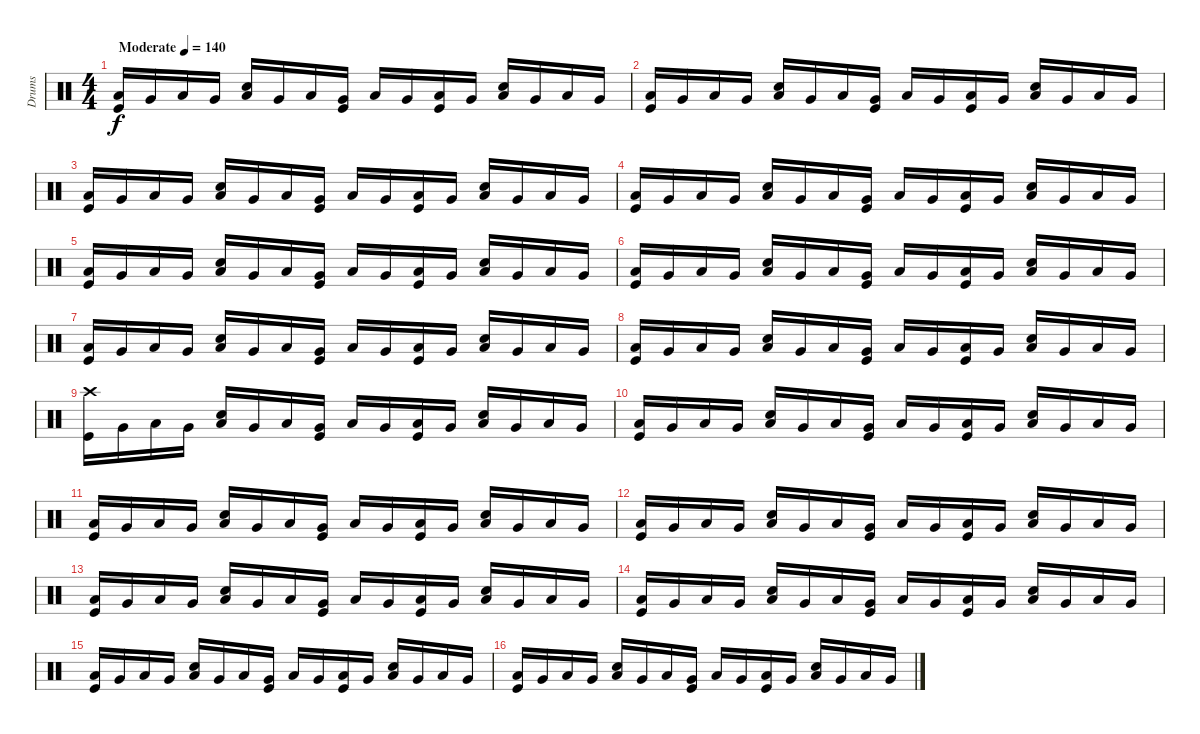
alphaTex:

\track ("Drums" "Drums") {instrument percussion}
\staff {score}
\articulation defaults
\ts (4 4)
\tempo (140 "Moderate")
\clef neutral
\ks c
("Low Floor Tom (hit)" "Kick (hit)").16{dy f} "Very Low Tom (hit)".16 "Low Floor Tom (hit)".16 "Very Low Tom (hit)".16 ("Snare (hit) 2" "Low Floor Tom (hit)").16 "Very Low Tom (hit)".16 "Low Floor Tom (hit)".16 ("Very Low Tom (hit)" "Kick (hit)").16 "Low Floor Tom (hit)".16 "Very Low Tom (hit)".16 ("Low Floor Tom (hit)" "Kick (hit)").16 "Very Low Tom (hit)".16 ("Snare (hit) 2" "Low Floor Tom (hit)").16 "Very Low Tom (hit)".16 "Low Floor Tom (hit)".16 "Very Low Tom (hit)".16 |
("Low Floor Tom (hit)" "Kick (hit)").16 "Very Low Tom (hit)".16 "Low Floor Tom (hit)".16 "Very Low Tom (hit)".16 ("Snare (hit) 2" "Low Floor Tom (hit)").16 "Very Low Tom (hit)".16 "Low Floor Tom (hit)".16 ("Very Low Tom (hit)" "Kick (hit)").16 "Low Floor Tom (hit)".16 "Very Low Tom (hit)".16 ("Low Floor Tom (hit)" "Kick (hit)").16 "Very Low Tom (hit)".16 ("Snare (hit) 2" "Low Floor Tom (hit)").16 "Very Low Tom (hit)".16 "Low Floor Tom (hit)".16 "Very Low Tom (hit)".16 |
("Low Floor Tom (hit)" "Kick (hit)").16 "Very Low Tom (hit)".16 "Low Floor Tom (hit)".16 "Very Low Tom (hit)".16 ("Snare (hit) 2" "Low Floor Tom (hit)").16 "Very Low Tom (hit)".16 "Low Floor Tom (hit)".16 ("Very Low Tom (hit)" "Kick (hit)").16 "Low Floor Tom (hit)".16 "Very Low Tom (hit)".16 ("Low Floor Tom (hit)" "Kick (hit)").16 "Very Low Tom (hit)".16 ("Snare (hit) 2" "Low Floor Tom (hit)").16 "Very Low Tom (hit)".16 "Low Floor Tom (hit)".16 "Very Low Tom (hit)".16 |
("Low Floor Tom (hit)" "Kick (hit)").16 "Very Low Tom (hit)".16 "Low Floor Tom (hit)".16 "Very Low Tom (hit)".16 ("Snare (hit) 2" "Low Floor Tom (hit)").16 "Very Low Tom (hit)".16 "Low Floor Tom (hit)".16 ("Very Low Tom (hit)" "Kick (hit)").16 "Low Floor Tom (hit)".16 "Very Low Tom (hit)".16 ("Low Floor Tom (hit)" "Kick (hit)").16 "Very Low Tom (hit)".16 ("Snare (hit) 2" "Low Floor Tom (hit)").16 "Very Low Tom (hit)".16 "Low Floor Tom (hit)".16 "Very Low Tom (hit)".16 |
("Low Floor Tom (hit)" "Kick (hit)").16 "Very Low Tom (hit)".16 "Low Floor Tom (hit)".16 "Very Low Tom (hit)".16 ("Snare (hit) 2" "Low Floor Tom (hit)").16 "Very Low Tom (hit)".16 "Low Floor Tom (hit)".16 ("Very Low Tom (hit)" "Kick (hit)").16 "Low Floor Tom (hit)".16 "Very Low Tom (hit)".16 ("Low Floor Tom (hit)" "Kick (hit)").16 "Very Low Tom (hit)".16 ("Snare (hit) 2" "Low Floor Tom (hit)").16 "Very Low Tom (hit)".16 "Low Floor Tom (hit)".16 "Very Low Tom (hit)".16 |
("Low Floor Tom (hit)" "Kick (hit)").16 "Very Low Tom (hit)".16 "Low Floor Tom (hit)".16 "Very Low Tom (hit)".16 ("Snare (hit) 2" "Low Floor Tom (hit)").16 "Very Low Tom (hit)".16 "Low Floor Tom (hit)".16 ("Very Low Tom (hit)" "Kick (hit)").16 "Low Floor Tom (hit)".16 "Very Low Tom (hit)".16 ("Low Floor Tom (hit)" "Kick (hit)").16 "Very Low Tom (hit)".16 ("Snare (hit) 2" "Low Floor Tom (hit)").16 "Very Low Tom (hit)".16 "Low Floor Tom (hit)".16 "Very Low Tom (hit)".16 |
("Low Floor Tom (hit)" "Kick (hit)").16 "Very Low Tom (hit)".16 "Low Floor Tom (hit)".16 "Very Low Tom (hit)".16 ("Snare (hit) 2" "Low Floor Tom (hit)").16 "Very Low Tom (hit)".16 "Low Floor Tom (hit)".16 ("Very Low Tom (hit)" "Kick (hit)").16 "Low Floor Tom (hit)".16 "Very Low Tom (hit)".16 ("Low Floor Tom (hit)" "Kick (hit)").16 "Very Low Tom (hit)".16 ("Snare (hit) 2" "Low Floor Tom (hit)").16 "Very Low Tom (hit)".16 "Low Floor Tom (hit)".16 "Very Low Tom (hit)".16 |
("Low Floor Tom (hit)" "Kick (hit)").16 "Very Low Tom (hit)".16 "Low Floor Tom (hit)".16 "Very Low Tom (hit)".16 ("Snare (hit) 2" "Low Floor Tom (hit)").16 "Very Low Tom (hit)".16 "Low Floor Tom (hit)".16 ("Very Low Tom (hit)" "Kick (hit)").16 "Low Floor Tom (hit)".16 "Very Low Tom (hit)".16 ("Low Floor Tom (hit)" "Kick (hit)").16 "Very Low Tom (hit)".16 ("Snare (hit) 2" "Low Floor Tom (hit)").16 "Very Low Tom (hit)".16 "Low Floor Tom (hit)".16 "Very Low Tom (hit)".16 |
("Crash high (hit)" "Kick (hit)").16 "Very Low Tom (hit)".16 "Low Floor Tom (hit)".16 "Very Low Tom (hit)".16 ("Snare (hit) 2" "Low Floor Tom (hit)").16 "Very Low Tom (hit)".16 "Low Floor Tom (hit)".16 ("Very Low Tom (hit)" "Kick (hit)").16 "Low Floor Tom (hit)".16 "Very Low Tom (hit)".16 ("Low Floor Tom (hit)" "Kick (hit)").16 "Very Low Tom (hit)".16 ("Snare (hit) 2" "Low Floor Tom (hit)").16 "Very Low Tom (hit)".16 "Low Floor Tom (hit)".16 "Very Low Tom (hit)".16 |
("Low Floor Tom (hit)" "Kick (hit)").16 "Very Low Tom (hit)".16 "Low Floor Tom (hit)".16 "Very Low Tom (hit)".16 ("Snare (hit) 2" "Low Floor Tom (hit)").16 "Very Low Tom (hit)".16 "Low Floor Tom (hit)".16 ("Very Low Tom (hit)" "Kick (hit)").16 "Low Floor Tom (hit)".16 "Very Low Tom (hit)".16 ("Low Floor Tom (hit)" "Kick (hit)").16 "Very Low Tom (hit)".16 ("Snare (hit) 2" "Low Floor Tom (hit)").16 "Very Low Tom (hit)".16 "Low Floor Tom (hit)".16 "Very Low Tom (hit)".16 |
("Low Floor Tom (hit)" "Kick (hit)").16 "Very Low Tom (hit)".16 "Low Floor Tom (hit)".16 "Very Low Tom (hit)".16 ("Snare (hit) 2" "Low Floor Tom (hit)").16 "Very Low Tom (hit)".16 "Low Floor Tom (hit)".16 ("Very Low Tom (hit)" "Kick (hit)").16 "Low Floor Tom (hit)".16 "Very Low Tom (hit)".16 ("Low Floor Tom (hit)" "Kick (hit)").16 "Very Low Tom (hit)".16 ("Snare (hit) 2" "Low Floor Tom (hit)").16 "Very Low Tom (hit)".16 "Low Floor Tom (hit)".16 "Very Low Tom (hit)".16 |
("Low Floor Tom (hit)" "Kick (hit)").16 "Very Low Tom (hit)".16 "Low Floor Tom (hit)".16 "Very Low Tom (hit)".16 ("Snare (hit) 2" "Low Floor Tom (hit)").16 "Very Low Tom (hit)".16 "Low Floor Tom (hit)".16 ("Very Low Tom (hit)" "Kick (hit)").16 "Low Floor Tom (hit)".16 "Very Low Tom (hit)".16 ("Low Floor Tom (hit)" "Kick (hit)").16 "Very Low Tom (hit)".16 ("Snare (hit) 2" "Low Floor Tom (hit)").16 "Very Low Tom (hit)".16 "Low Floor Tom (hit)".16 "Very Low Tom (hit)".16 |
("Low Floor Tom (hit)" "Kick (hit)").16 "Very Low Tom (hit)".16 "Low Floor Tom (hit)".16 "Very Low Tom (hit)".16 ("Snare (hit) 2" "Low Floor Tom (hit)").16 "Very Low Tom (hit)".16 "Low Floor Tom (hit)".16 ("Very Low Tom (hit)" "Kick (hit)").16 "Low Floor Tom (hit)".16 "Very Low Tom (hit)".16 ("Low Floor Tom (hit)" "Kick (hit)").16 "Very Low Tom (hit)".16 ("Snare (hit) 2" "Low Floor Tom (hit)").16 "Very Low Tom (hit)".16 "Low Floor Tom (hit)".16 "Very Low Tom (hit)".16 |
("Low Floor Tom (hit)" "Kick (hit)").16 "Very Low Tom (hit)".16 "Low Floor Tom (hit)".16 "Very Low Tom (hit)".16 ("Snare (hit) 2" "Low Floor Tom (hit)").16 "Very Low Tom (hit)".16 "Low Floor Tom (hit)".16 ("Very Low Tom (hit)" "Kick (hit)").16 "Low Floor Tom (hit)".16 "Very Low Tom (hit)".16 ("Low Floor Tom (hit)" "Kick (hit)").16 "Very Low Tom (hit)".16 ("Snare (hit) 2" "Low Floor Tom (hit)").16 "Very Low Tom (hit)".16 "Low Floor Tom (hit)".16 "Very Low Tom (hit)".16 |
("Low Floor Tom (hit)" "Kick (hit)").16 "Very Low Tom (hit)".16 "Low Floor Tom (hit)".16 "Very Low Tom (hit)".16 ("Snare (hit) 2" "Low Floor Tom (hit)").16 "Very Low Tom (hit)".16 "Low Floor Tom (hit)".16 ("Very Low Tom (hit)" "Kick (hit)").16 "Low Floor Tom (hit)".16 "Very Low Tom (hit)".16 ("Low Floor Tom (hit)" "Kick (hit)").16 "Very Low Tom (hit)".16 ("Snare (hit) 2" "Low Floor Tom (hit)").16 "Very Low Tom (hit)".16 "Low Floor Tom (hit)".16 "Very Low Tom (hit)".16 |
("Low Floor Tom (hit)" "Kick (hit)").16 "Very Low Tom (hit)".16 "Low Floor Tom (hit)".16 "Very Low Tom (hit)".16 ("Snare (hit) 2" "Low Floor Tom (hit)").16 "Very Low Tom (hit)".16 "Low Floor Tom (hit)".16 ("Very Low Tom (hit)" "Kick (hit)").16 "Low Floor Tom (hit)".16 "Very Low Tom (hit)".16 ("Low Floor Tom (hit)" "Kick (hit)").16 "Very Low Tom (hit)".16 ("Snare (hit) 2" "Low Floor Tom (hit)").16 "Very Low Tom (hit)".16 "Low Floor Tom (hit)".16 "Very Low Tom (hit)".16
